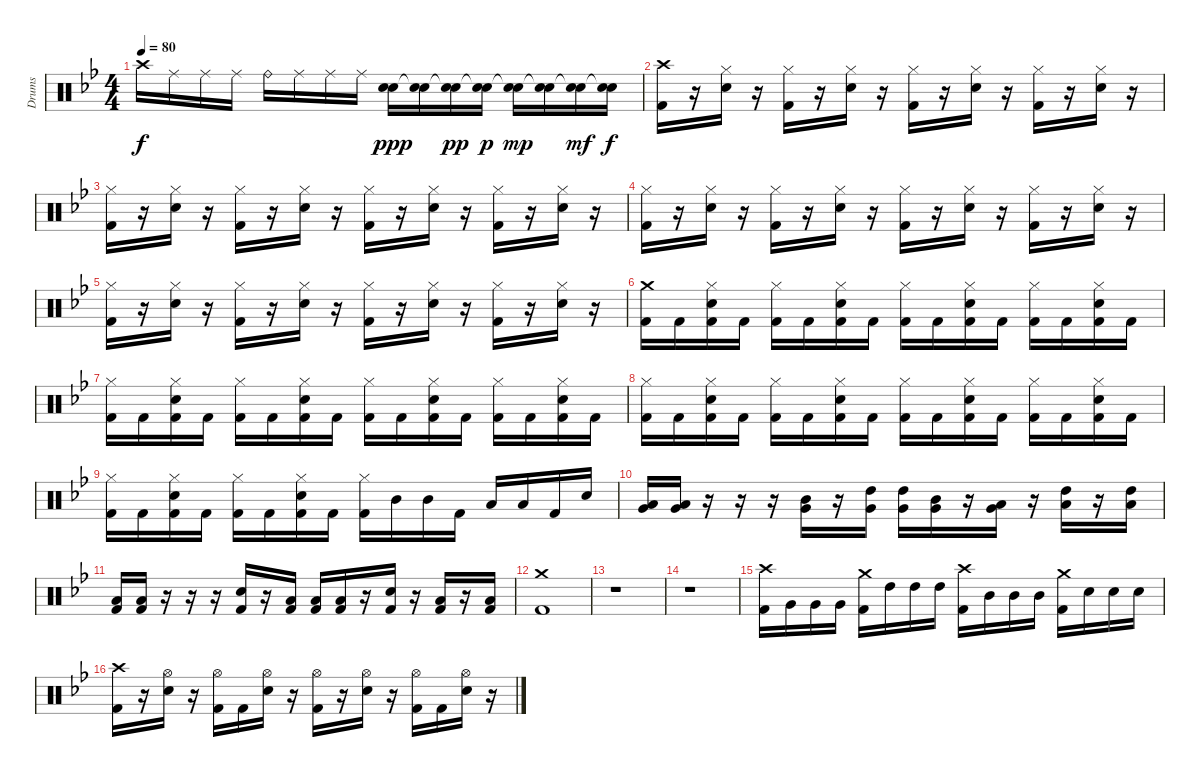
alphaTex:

\track ("Drums" "Drums") {instrument percussion}
\staff {score}
\articulation defaults
\ts (4 4)
\tempo 80
\clef neutral
\ks gminor "Crash high (hit)".16{dy f} "Ride (middle)".16 "Ride (middle)".16 "Ride (middle)".16 "Ride (bell)".16 "Ride (middle)".16 "Ride (middle)".16 "Ride (middle)".16
("Snare (hit) 2" "Snare (hit)"{t}).16{dy ppp} ("Snare (hit) 2" "Snare (hit)"{t}).16 ("Snare (hit) 2" "Snare (hit)"{t}).16{dy pp} ("Snare (hit) 2" "Snare (hit)"{t}).16{dy p} ("Snare (hit) 2" "Snare (hit)"{t}).16{dy mp} ("Electric Snare (hit)" "Snare (hit)"{t}).16 ("Electric Snare (hit)" "Snare (hit)"{t}).16{dy mf} ("Electric Snare (hit)" "Snare (hit)"{t}).16{dy f} |
("Kick (hit) 2" "Crash high (hit)").16 r.16 ("Electric Snare (hit)" "Hi-Hat (closed)").16 r.16 ("Kick (hit) 2" "Hi-Hat (closed)").16 r.16 ("Electric Snare (hit)" "Hi-Hat (closed)").16 r.16 ("Kick (hit) 2" "Hi-Hat (closed)").16 r.16 ("Electric Snare (hit)" "Hi-Hat (closed)").16 r.16 ("Kick (hit) 2" "Hi-Hat (closed)").16 r.16 ("Electric Snare (hit)" "Hi-Hat (closed)").16 r.16 |
("Kick (hit) 2" "Hi-Hat (closed)").16 r.16 ("Electric Snare (hit)" "Hi-Hat (closed)").16 r.16 ("Kick (hit) 2" "Hi-Hat (closed)").16 r.16 ("Electric Snare (hit)" "Hi-Hat (closed)").16 r.16 ("Kick (hit) 2" "Hi-Hat (closed)").16 r.16 ("Electric Snare (hit)" "Hi-Hat (closed)").16 r.16 ("Kick (hit) 2" "Hi-Hat (closed)").16 r.16 ("Electric Snare (hit)" "Hi-Hat (closed)").16 r.16 |
("Kick (hit) 2" "Hi-Hat (closed)").16 r.16 ("Electric Snare (hit)" "Hi-Hat (closed)").16 r.16 ("Kick (hit) 2" "Hi-Hat (closed)").16 r.16 ("Electric Snare (hit)" "Hi-Hat (closed)").16 r.16 ("Kick (hit) 2" "Hi-Hat (closed)").16 r.16 ("Electric Snare (hit)" "Hi-Hat (closed)").16 r.16 ("Kick (hit) 2" "Hi-Hat (closed)").16 r.16 ("Electric Snare (hit)" "Hi-Hat (closed)").16 r.16 |
("Kick (hit) 2" "Hi-Hat (closed)").16 r.16 ("Electric Snare (hit)" "Hi-Hat (closed)").16 r.16 ("Kick (hit) 2" "Hi-Hat (closed)").16 r.16 ("Electric Snare (hit)" "Hi-Hat (closed)").16 r.16 ("Kick (hit) 2" "Hi-Hat (closed)").16 r.16 ("Electric Snare (hit)" "Hi-Hat (closed)").16 r.16 ("Kick (hit) 2" "Hi-Hat (closed)").16 r.16 ("Electric Snare (hit)" "Hi-Hat (closed)").16 r.16 |
("Kick (hit) 2" "Crash medium (hit)").16 "Kick (hit) 2".16 ("Kick (hit) 2" "Electric Snare (hit)" "Hi-Hat (closed)").16 "Kick (hit) 2".16 ("Kick (hit) 2" "Hi-Hat (closed)").16 "Kick (hit) 2".16 ("Kick (hit) 2" "Electric Snare (hit)" "Hi-Hat (closed)").16 "Kick (hit) 2".16 ("Kick (hit) 2" "Hi-Hat (closed)").16 "Kick (hit) 2".16 ("Kick (hit) 2" "Electric Snare (hit)" "Hi-Hat (closed)").16 "Kick (hit) 2".16 ("Kick (hit) 2" "Hi-Hat (closed)").16 "Kick (hit) 2".16 ("Kick (hit) 2" "Electric Snare (hit)" "Hi-Hat (closed)").16 "Kick (hit) 2".16 |
("Kick (hit) 2" "Hi-Hat (closed)").16 "Kick (hit) 2".16 ("Kick (hit) 2" "Electric Snare (hit)" "Hi-Hat (closed)").16 "Kick (hit) 2".16 ("Kick (hit) 2" "Hi-Hat (closed)").16 "Kick (hit) 2".16 ("Kick (hit) 2" "Electric Snare (hit)" "Hi-Hat (closed)").16 "Kick (hit) 2".16 ("Kick (hit) 2" "Hi-Hat (closed)").16 "Kick (hit) 2".16 ("Kick (hit) 2" "Electric Snare (hit)" "Hi-Hat (closed)").16 "Kick (hit) 2".16 ("Kick (hit) 2" "Hi-Hat (closed)").16 "Kick (hit) 2".16 ("Kick (hit) 2" "Electric Snare (hit)" "Hi-Hat (closed)").16 "Kick (hit) 2".16 |
("Kick (hit) 2" "Hi-Hat (closed)").16 "Kick (hit) 2".16 ("Kick (hit) 2" "Electric Snare (hit)" "Hi-Hat (closed)").16 "Kick (hit) 2".16 ("Kick (hit) 2" "Hi-Hat (closed)").16 "Kick (hit) 2".16 ("Kick (hit) 2" "Electric Snare (hit)" "Hi-Hat (closed)").16 "Kick (hit) 2".16 ("Kick (hit) 2" "Hi-Hat (closed)").16 "Kick (hit) 2".16 ("Kick (hit) 2" "Electric Snare (hit)" "Hi-Hat (closed)").16 "Kick (hit) 2".16 ("Kick (hit) 2" "Hi-Hat (closed)").16 "Kick (hit) 2".16 ("Kick (hit) 2" "Electric Snare (hit)" "Hi-Hat (closed)").16 "Kick (hit) 2".16 |
("Kick (hit) 2" "Hi-Hat (closed)").16 "Kick (hit) 2".16 ("Kick (hit) 2" "Electric Snare (hit)" "Hi-Hat (closed)").16 "Kick (hit) 2".16 ("Kick (hit) 2" "Hi-Hat (closed)").16 "Kick (hit) 2".16 ("Kick (hit) 2" "Electric Snare (hit)" "Hi-Hat (closed)").16 "Kick (hit) 2".16 ("Kick (hit) 2" "Hi-Hat (closed)").16 "Mid Tom (hit)".16 "Mid Tom (hit)".16 "Kick (hit) 2".16 "Low Tom (hit)".16 "Low Tom (hit)".16 "Kick (hit) 2".16 "Snare (hit) 2".16 |
("Low Floor Tom (hit)" "Very Low Tom (hit)").16 ("Low Floor Tom (hit)" "Very Low Tom (hit)").16 r.16 r.16 r.16 ("Mid Tom (hit)" "Very Low Tom (hit)").16 r.16 ("High Tom (hit)" "Very Low Tom (hit)").16 ("High Tom (hit)" "Very Low Tom (hit)").16 ("Mid Tom (hit)" "Very Low Tom (hit)").16 r.16 ("Low Tom (hit)" "Very Low Tom (hit)").16 r.16 ("High Tom (hit)" "Low Floor Tom (hit)").16 r.16 ("High Tom (hit)" "Low Floor Tom (hit)").16 |
("Kick (hit) 2" "Low Tom (hit)").16 ("Kick (hit) 2" "Low Tom (hit)").16 r.16 r.16 r.16 ("Kick (hit) 2" "Electric Snare (hit)").16 r.16 ("Kick (hit) 2" "Low Tom (hit)").16 ("Kick (hit) 2" "Low Tom (hit)").16 ("Kick (hit) 2" "Low Tom (hit)").16 r.16 ("Kick (hit) 2" "Electric Snare (hit)").16 r.16 ("Kick (hit) 2" "Low Tom (hit)").16 r.16 ("Kick (hit) 2" "Low Tom (hit)").16 |
("Kick (hit) 2" "Crash medium (hit)").1 |
r.1 |
r.1 |
("Kick (hit) 2" "Crash high (hit)").16 "Very Low Tom (hit)".16 "Very Low Tom (hit)".16 "Very Low Tom (hit)".16 ("Kick (hit) 2" "Crash medium (hit)").16 "High Tom (hit)".16 "High Tom (hit)".16 "High Tom (hit)".16 ("Kick (hit) 2" "Crash high (hit)").16 "Mid Tom (hit)".16 "Mid Tom (hit)".16 "Mid Tom (hit)".16 ("Kick (hit) 2" "Crash medium (hit)").16 "Snare (hit) 2".16 "Snare (hit) 2".16 "Snare (hit) 2".16 |
("Kick (hit) 2" "Crash high (hit)").16 r.16 ("Electric Snare (hit)" "Hi-Hat (open)").16 r.16 ("Kick (hit) 2" "Hi-Hat (open)").16 "Kick (hit) 2".16 ("Electric Snare (hit)" "Hi-Hat (open)").16 r.16 ("Kick (hit) 2" "Hi-Hat (open)").16 r.16 ("Electric Snare (hit)" "Hi-Hat (open)").16 r.16 ("Kick (hit) 2" "Hi-Hat (open)").16 "Kick (hit) 2".16 ("Electric Snare (hit)" "Hi-Hat (open)").16 r.16
